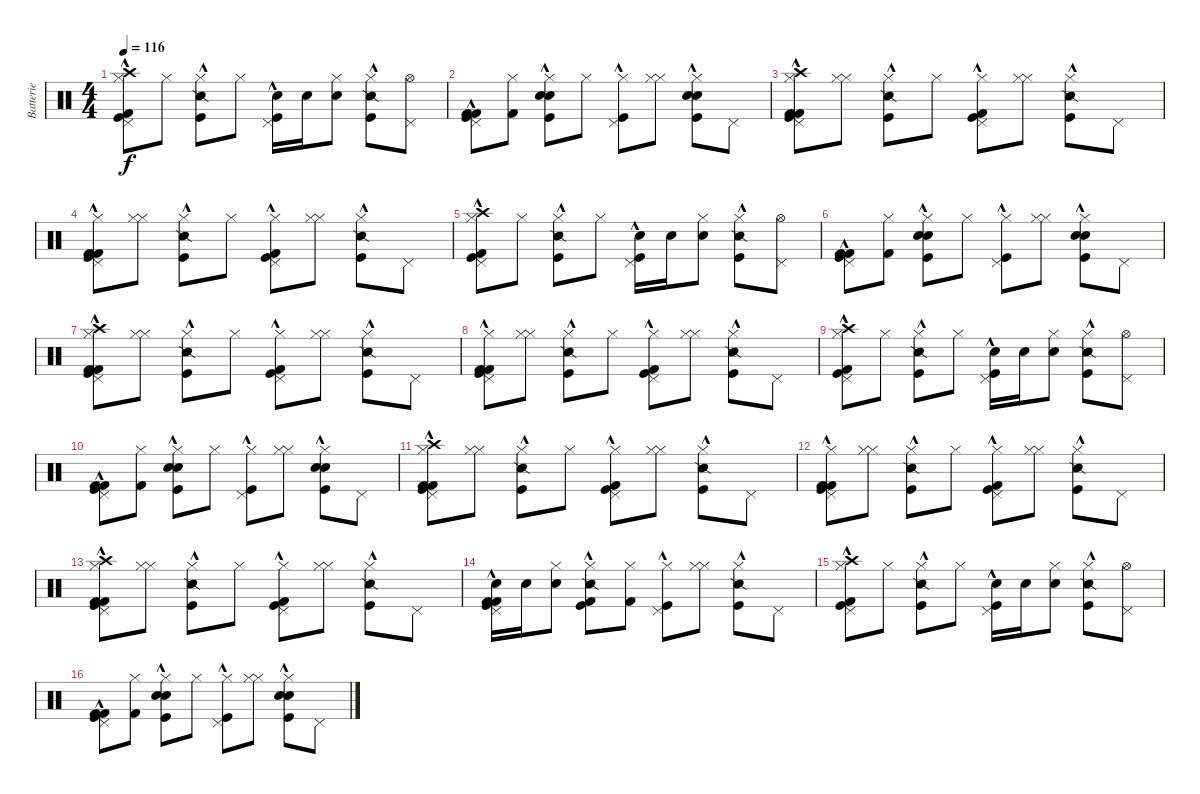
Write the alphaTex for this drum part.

\track ("Batterie" "Batterie") {instrument percussion}
\staff {score}
\articulation defaults
\ts (4 4)
\tempo 116
\clef neutral
\ks c
("Hi-Hat (closed)" "Kick (hit) 2"{hac} "Pedal Hi-Hat (hit)" "Kick (hit)"{hac} "Crash high (hit)"{hac}).8{dy f} "Hi-Hat (closed)".8 ("Snare (side stick) 2"{hac} "Hi-Hat (closed)" "Kick (hit)"{hac}).8 "Hi-Hat (closed)".8 ("Electric Snare (hit)" "Pedal Hi-Hat (hit)" "Kick (hit)"{hac}).16 "Electric Snare (hit)".16 ("Electric Snare (hit)" "Hi-Hat (closed)").8 ("Snare (side stick) 2" "Hi-Hat (closed)" "Kick (hit)"{hac}).8 ("Hi-Hat (open)" "Pedal Hi-Hat (hit)").8 |
("Kick (hit) 2" "Kick (hit) 2" "Pedal Hi-Hat (hit)" "Kick (hit)"{hac}).8 ("Kick (hit) 2" "Hi-Hat (closed)").8 ("Snare (hit) 2"{hac} "Electric Snare (hit)"{hac} "Hi-Hat (closed)" "Kick (hit)"{hac}).8 "Hi-Hat (closed)".8 ("Hi-Hat (closed)" "Pedal Hi-Hat (hit)" "Kick (hit)"{hac}).8 ("Hi-Hat (closed)" "Hi-Hat (closed)").8 ("Snare (hit) 2"{hac} "Electric Snare (hit)"{hac} "Hi-Hat (closed)" "Kick (hit)"{hac}).8 "Pedal Hi-Hat (hit)".8 |
("Kick (hit) 2"{hac} "Hi-Hat (closed)" "Kick (hit) 2"{hac} "Pedal Hi-Hat (hit)" "Kick (hit)"{hac} "Crash high (hit)"{hac}).8 ("Hi-Hat (closed)" "Hi-Hat (closed)").8 ("Snare (side stick) 2"{hac} "Hi-Hat (closed)" "Kick (hit)"{hac}).8 "Hi-Hat (closed)".8 ("Kick (hit) 2"{hac} "Hi-Hat (closed)" "Pedal Hi-Hat (hit)" "Kick (hit)"{hac}).8 ("Hi-Hat (closed)" "Hi-Hat (closed)").8 ("Snare (side stick) 2"{hac} "Hi-Hat (closed)" "Kick (hit)"{hac}).8 "Pedal Hi-Hat (hit)".8 |
("Kick (hit) 2"{hac} "Hi-Hat (closed)" "Kick (hit) 2"{hac} "Pedal Hi-Hat (hit)" "Kick (hit)"{hac}).8 ("Hi-Hat (closed)" "Hi-Hat (closed)").8 ("Snare (side stick) 2"{hac} "Hi-Hat (closed)" "Kick (hit)"{hac}).8 "Hi-Hat (closed)".8 ("Kick (hit) 2"{hac} "Hi-Hat (closed)" "Pedal Hi-Hat (hit)" "Kick (hit)"{hac}).8 ("Hi-Hat (closed)" "Hi-Hat (closed)").8 ("Snare (side stick) 2"{hac} "Hi-Hat (closed)" "Kick (hit)"{hac}).8 "Pedal Hi-Hat (hit)".8 |
("Hi-Hat (closed)" "Kick (hit) 2"{hac} "Pedal Hi-Hat (hit)" "Kick (hit)"{hac} "Crash high (hit)"{hac}).8 "Hi-Hat (closed)".8 ("Snare (side stick) 2"{hac} "Hi-Hat (closed)" "Kick (hit)"{hac}).8 "Hi-Hat (closed)".8 ("Electric Snare (hit)" "Pedal Hi-Hat (hit)" "Kick (hit)"{hac}).16 "Electric Snare (hit)".16 ("Electric Snare (hit)" "Hi-Hat (closed)").8 ("Snare (side stick) 2" "Hi-Hat (closed)" "Kick (hit)"{hac}).8 ("Hi-Hat (open)" "Pedal Hi-Hat (hit)").8 |
("Kick (hit) 2" "Kick (hit) 2" "Pedal Hi-Hat (hit)" "Kick (hit)"{hac}).8 ("Kick (hit) 2" "Hi-Hat (closed)").8 ("Snare (hit) 2"{hac} "Electric Snare (hit)"{hac} "Hi-Hat (closed)" "Kick (hit)"{hac}).8 "Hi-Hat (closed)".8 ("Hi-Hat (closed)" "Pedal Hi-Hat (hit)" "Kick (hit)"{hac}).8 ("Hi-Hat (closed)" "Hi-Hat (closed)").8 ("Snare (hit) 2"{hac} "Electric Snare (hit)"{hac} "Hi-Hat (closed)" "Kick (hit)"{hac}).8 "Pedal Hi-Hat (hit)".8 |
("Kick (hit) 2"{hac} "Hi-Hat (closed)" "Kick (hit) 2"{hac} "Pedal Hi-Hat (hit)" "Kick (hit)"{hac} "Crash high (hit)"{hac}).8 ("Hi-Hat (closed)" "Hi-Hat (closed)").8 ("Snare (side stick) 2"{hac} "Hi-Hat (closed)" "Kick (hit)"{hac}).8 "Hi-Hat (closed)".8 ("Kick (hit) 2"{hac} "Hi-Hat (closed)" "Pedal Hi-Hat (hit)" "Kick (hit)"{hac}).8 ("Hi-Hat (closed)" "Hi-Hat (closed)").8 ("Snare (side stick) 2"{hac} "Hi-Hat (closed)" "Kick (hit)"{hac}).8 "Pedal Hi-Hat (hit)".8 |
("Kick (hit) 2"{hac} "Hi-Hat (closed)" "Kick (hit) 2"{hac} "Pedal Hi-Hat (hit)" "Kick (hit)"{hac}).8 ("Hi-Hat (closed)" "Hi-Hat (closed)").8 ("Snare (side stick) 2"{hac} "Hi-Hat (closed)" "Kick (hit)"{hac}).8 "Hi-Hat (closed)".8 ("Kick (hit) 2"{hac} "Hi-Hat (closed)" "Pedal Hi-Hat (hit)" "Kick (hit)"{hac}).8 ("Hi-Hat (closed)" "Hi-Hat (closed)").8 ("Snare (side stick) 2"{hac} "Hi-Hat (closed)" "Kick (hit)"{hac}).8 "Pedal Hi-Hat (hit)".8 |
("Hi-Hat (closed)" "Kick (hit) 2"{hac} "Pedal Hi-Hat (hit)" "Kick (hit)"{hac} "Crash high (hit)"{hac}).8 "Hi-Hat (closed)".8 ("Snare (side stick) 2"{hac} "Hi-Hat (closed)" "Kick (hit)"{hac}).8 "Hi-Hat (closed)".8 ("Electric Snare (hit)" "Pedal Hi-Hat (hit)" "Kick (hit)"{hac}).16 "Electric Snare (hit)".16 ("Electric Snare (hit)" "Hi-Hat (closed)").8 ("Snare (side stick) 2" "Hi-Hat (closed)" "Kick (hit)"{hac}).8 ("Hi-Hat (open)" "Pedal Hi-Hat (hit)").8 |
("Kick (hit) 2" "Kick (hit) 2" "Pedal Hi-Hat (hit)" "Kick (hit)"{hac}).8 ("Kick (hit) 2" "Hi-Hat (closed)").8 ("Snare (hit) 2"{hac} "Electric Snare (hit)"{hac} "Hi-Hat (closed)" "Kick (hit)"{hac}).8 "Hi-Hat (closed)".8 ("Hi-Hat (closed)" "Pedal Hi-Hat (hit)" "Kick (hit)"{hac}).8 ("Hi-Hat (closed)" "Hi-Hat (closed)").8 ("Snare (hit) 2"{hac} "Electric Snare (hit)"{hac} "Hi-Hat (closed)" "Kick (hit)"{hac}).8 "Pedal Hi-Hat (hit)".8 |
("Kick (hit) 2"{hac} "Hi-Hat (closed)" "Kick (hit) 2"{hac} "Pedal Hi-Hat (hit)" "Kick (hit)"{hac} "Crash high (hit)"{hac}).8 ("Hi-Hat (closed)" "Hi-Hat (closed)").8 ("Snare (side stick) 2"{hac} "Hi-Hat (closed)" "Kick (hit)"{hac}).8 "Hi-Hat (closed)".8 ("Kick (hit) 2"{hac} "Hi-Hat (closed)" "Pedal Hi-Hat (hit)" "Kick (hit)"{hac}).8 ("Hi-Hat (closed)" "Hi-Hat (closed)").8 ("Snare (side stick) 2"{hac} "Hi-Hat (closed)" "Kick (hit)"{hac}).8 "Pedal Hi-Hat (hit)".8 |
("Kick (hit) 2"{hac} "Hi-Hat (closed)" "Kick (hit) 2"{hac} "Pedal Hi-Hat (hit)" "Kick (hit)"{hac}).8 ("Hi-Hat (closed)" "Hi-Hat (closed)").8 ("Snare (side stick) 2"{hac} "Hi-Hat (closed)" "Kick (hit)"{hac}).8 "Hi-Hat (closed)".8 ("Kick (hit) 2"{hac} "Hi-Hat (closed)" "Pedal Hi-Hat (hit)" "Kick (hit)"{hac}).8 ("Hi-Hat (closed)" "Hi-Hat (closed)").8 ("Snare (side stick) 2"{hac} "Hi-Hat (closed)" "Kick (hit)"{hac}).8 "Pedal Hi-Hat (hit)".8 |
("Kick (hit) 2"{hac} "Hi-Hat (closed)" "Kick (hit) 2"{hac} "Pedal Hi-Hat (hit)" "Kick (hit)"{hac} "Crash high (hit)"{hac}).8 ("Hi-Hat (closed)" "Hi-Hat (closed)").8 ("Snare (side stick) 2"{hac} "Hi-Hat (closed)" "Kick (hit)"{hac}).8 "Hi-Hat (closed)".8 ("Kick (hit) 2"{hac} "Hi-Hat (closed)" "Pedal Hi-Hat (hit)" "Kick (hit)"{hac}).8 ("Hi-Hat (closed)" "Hi-Hat (closed)").8 ("Snare (side stick) 2"{hac} "Hi-Hat (closed)" "Kick (hit)"{hac}).8 "Pedal Hi-Hat (hit)".8 |
("Kick (hit) 2"{hac} "Snare (hit) 2" "Kick (hit) 2"{hac} "Pedal Hi-Hat (hit)" "Kick (hit)"{hac}).16 "Snare (hit) 2".16 ("Electric Snare (hit)" "Hi-Hat (closed)").8 ("Snare (side stick) 2"{hac} "Kick (hit) 2" "Hi-Hat (closed)" "Kick (hit)"{hac}).8 ("Kick (hit) 2" "Hi-Hat (closed)").8 ("Hi-Hat (closed)" "Pedal Hi-Hat (hit)" "Kick (hit)"{hac}).8 ("Hi-Hat (closed)" "Hi-Hat (closed)").8 ("Snare (side stick) 2"{hac} "Hi-Hat (closed)" "Kick (hit)"{hac}).8 "Pedal Hi-Hat (hit)".8 |
("Hi-Hat (closed)" "Kick (hit) 2"{hac} "Pedal Hi-Hat (hit)" "Kick (hit)"{hac} "Crash high (hit)"{hac}).8 "Hi-Hat (closed)".8 ("Snare (side stick) 2"{hac} "Hi-Hat (closed)" "Kick (hit)"{hac}).8 "Hi-Hat (closed)".8 ("Electric Snare (hit)" "Pedal Hi-Hat (hit)" "Kick (hit)"{hac}).16 "Electric Snare (hit)".16 ("Electric Snare (hit)" "Hi-Hat (closed)").8 ("Snare (side stick) 2" "Hi-Hat (closed)" "Kick (hit)"{hac}).8 ("Hi-Hat (open)" "Pedal Hi-Hat (hit)").8 |
("Kick (hit) 2" "Kick (hit) 2" "Pedal Hi-Hat (hit)" "Kick (hit)"{hac}).8 ("Kick (hit) 2" "Hi-Hat (closed)").8 ("Snare (hit) 2"{hac} "Electric Snare (hit)"{hac} "Hi-Hat (closed)" "Kick (hit)"{hac}).8 "Hi-Hat (closed)".8 ("Hi-Hat (closed)" "Pedal Hi-Hat (hit)" "Kick (hit)"{hac}).8 ("Hi-Hat (closed)" "Hi-Hat (closed)").8 ("Snare (hit) 2"{hac} "Electric Snare (hit)"{hac} "Hi-Hat (closed)" "Kick (hit)"{hac}).8 "Pedal Hi-Hat (hit)".8
